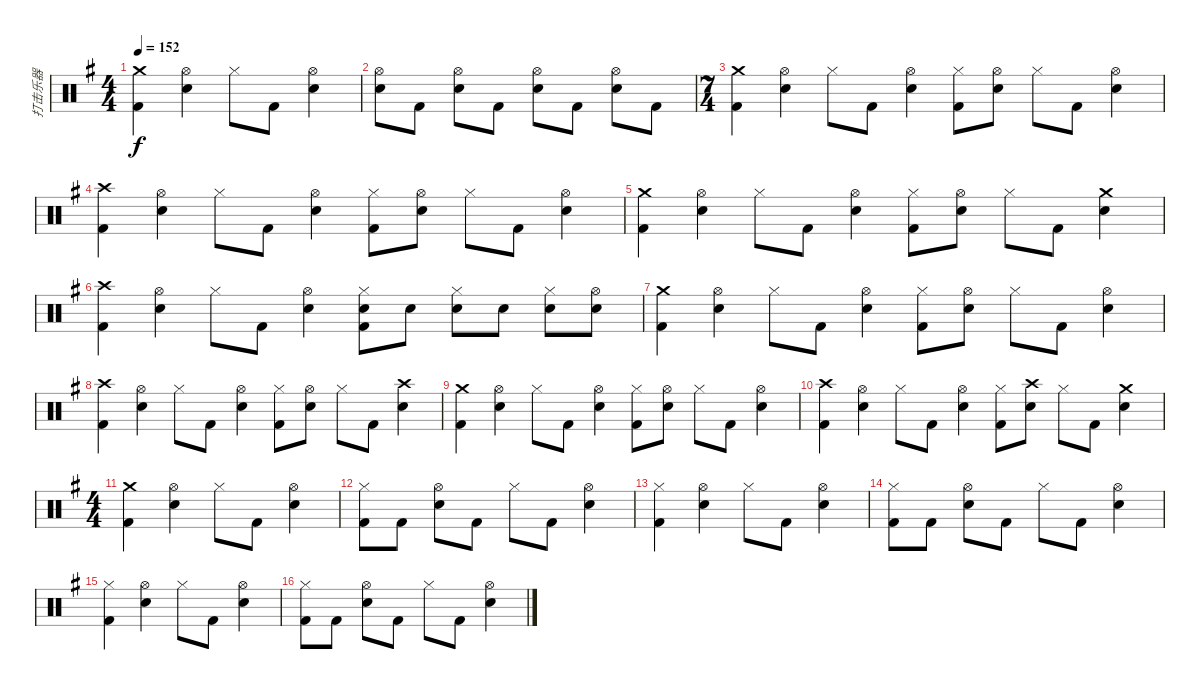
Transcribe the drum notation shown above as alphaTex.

\track ("打击乐器" "打击乐器") {instrument percussion}
\staff {score}
\articulation defaults
\ts (4 4)
\tempo 152
\clef neutral
\ks g
("Crash medium (hit)" "Kick (hit) 2").4{dy f} ("Hi-Hat (open)" "Metronome (bell)").4 "Hi-Hat (closed)".8 "Kick (hit) 2".8 ("Hi-Hat (open)" "Metronome (bell)").4 |
("Hi-Hat (open)" "Metronome (bell)").8 "Kick (hit) 2".8 ("Hi-Hat (open)" "Metronome (bell)").8 "Kick (hit) 2".8 ("Hi-Hat (open)" "Metronome (bell)").8 "Kick (hit) 2".8 ("Hi-Hat (open)" "Metronome (bell)").8 "Kick (hit) 2".8 |
\ts (7 4)
("Crash medium (hit)" "Kick (hit) 2").4 ("Hi-Hat (open)" "Metronome (bell)").4 "Hi-Hat (closed)".8 "Kick (hit) 2".8 ("Hi-Hat (open)" "Metronome (bell)").4 ("Hi-Hat (closed)" "Kick (hit) 2").8 ("Hi-Hat (open)" "Metronome (bell)").8 "Hi-Hat (closed)".8 "Kick (hit) 2".8 ("Hi-Hat (open)" "Metronome (bell)").4 |
("Crash high (hit)" "Kick (hit) 2").4 ("Hi-Hat (open)" "Metronome (bell)").4 "Hi-Hat (closed)".8 "Kick (hit) 2".8 ("Hi-Hat (open)" "Metronome (bell)").4 ("Hi-Hat (closed)" "Kick (hit) 2").8 ("Hi-Hat (open)" "Metronome (bell)").8 "Hi-Hat (closed)".8 "Kick (hit) 2".8 ("Hi-Hat (open)" "Metronome (bell)").4 |
("Crash medium (hit)" "Kick (hit) 2").4 ("Hi-Hat (open)" "Metronome (bell)").4 "Hi-Hat (closed)".8 "Kick (hit) 2".8 ("Hi-Hat (open)" "Metronome (bell)").4 ("Hi-Hat (closed)" "Kick (hit) 2").8 ("Hi-Hat (open)" "Metronome (bell)").8 "Hi-Hat (closed)".8 "Kick (hit) 2".8 ("Crash medium (hit)" "Metronome (bell)").4 |
("Crash high (hit)" "Kick (hit) 2").4 ("Hi-Hat (open)" "Metronome (bell)").4 "Hi-Hat (closed)".8 "Kick (hit) 2".8 ("Hi-Hat (open)" "Metronome (bell)").4 ("Hi-Hat (closed)" "Metronome (bell)" "Kick (hit) 2").8 "Metronome (bell)".8 ("Hi-Hat (closed)" "Metronome (bell)").8 "Metronome (bell)".8 ("Hi-Hat (closed)" "Metronome (bell)").8 ("Hi-Hat (open)" "Metronome (bell)").8 |
("Crash medium (hit)" "Kick (hit) 2").4 ("Hi-Hat (open)" "Metronome (bell)").4 "Hi-Hat (closed)".8 "Kick (hit) 2".8 ("Hi-Hat (open)" "Metronome (bell)").4 ("Hi-Hat (closed)" "Kick (hit) 2").8 ("Hi-Hat (open)" "Metronome (bell)").8 "Hi-Hat (closed)".8 "Kick (hit) 2".8 ("Hi-Hat (open)" "Metronome (bell)").4 |
("Crash high (hit)" "Kick (hit) 2").4 ("Hi-Hat (open)" "Metronome (bell)").4 "Hi-Hat (closed)".8 "Kick (hit) 2".8 ("Hi-Hat (open)" "Metronome (bell)").4 ("Hi-Hat (closed)" "Kick (hit) 2").8 ("Hi-Hat (open)" "Metronome (bell)").8 "Hi-Hat (closed)".8 "Kick (hit) 2".8 ("Crash high (hit)" "Metronome (bell)").4 |
("Crash medium (hit)" "Kick (hit) 2").4 ("Hi-Hat (open)" "Metronome (bell)").4 "Hi-Hat (closed)".8 "Kick (hit) 2".8 ("Hi-Hat (open)" "Metronome (bell)").4 ("Hi-Hat (closed)" "Kick (hit) 2").8 ("Hi-Hat (open)" "Metronome (bell)").8 "Hi-Hat (closed)".8 "Kick (hit) 2".8 ("Hi-Hat (open)" "Metronome (bell)").4 |
("Crash high (hit)" "Kick (hit) 2").4 ("Hi-Hat (open)" "Metronome (bell)").4 "Hi-Hat (closed)".8 "Kick (hit) 2".8 ("Hi-Hat (open)" "Metronome (bell)").4 ("Hi-Hat (closed)" "Kick (hit) 2").8 ("Crash high (hit)" "Metronome (bell)").8 "Hi-Hat (closed)".8 "Kick (hit) 2".8 ("Crash medium (hit)" "Metronome (bell)").4 |
\ts (4 4)
("Crash medium (hit)" "Kick (hit) 2").4 ("Hi-Hat (open)" "Metronome (bell)").4 "Hi-Hat (closed)".8 "Kick (hit) 2".8 ("Hi-Hat (open)" "Metronome (bell)").4 |
("Hi-Hat (closed)" "Kick (hit) 2").8 "Kick (hit) 2".8 ("Hi-Hat (open)" "Metronome (bell)").8 "Kick (hit) 2".8 "Hi-Hat (closed)".8 "Kick (hit) 2".8 ("Hi-Hat (open)" "Metronome (bell)").4 |
("Hi-Hat (closed)" "Kick (hit) 2").4 ("Hi-Hat (open)" "Metronome (bell)").4 "Hi-Hat (closed)".8 "Kick (hit) 2".8 ("Hi-Hat (open)" "Metronome (bell)").4 |
("Hi-Hat (closed)" "Kick (hit) 2").8 "Kick (hit) 2".8 ("Hi-Hat (open)" "Metronome (bell)").8 "Kick (hit) 2".8 "Hi-Hat (closed)".8 "Kick (hit) 2".8 ("Hi-Hat (open)" "Metronome (bell)").4 |
("Hi-Hat (closed)" "Kick (hit) 2").4 ("Hi-Hat (open)" "Metronome (bell)").4 "Hi-Hat (closed)".8 "Kick (hit) 2".8 ("Hi-Hat (open)" "Metronome (bell)").4 |
("Hi-Hat (closed)" "Kick (hit) 2").8 "Kick (hit) 2".8 ("Hi-Hat (open)" "Metronome (bell)").8 "Kick (hit) 2".8 "Hi-Hat (closed)".8 "Kick (hit) 2".8 ("Hi-Hat (open)" "Metronome (bell)").4
